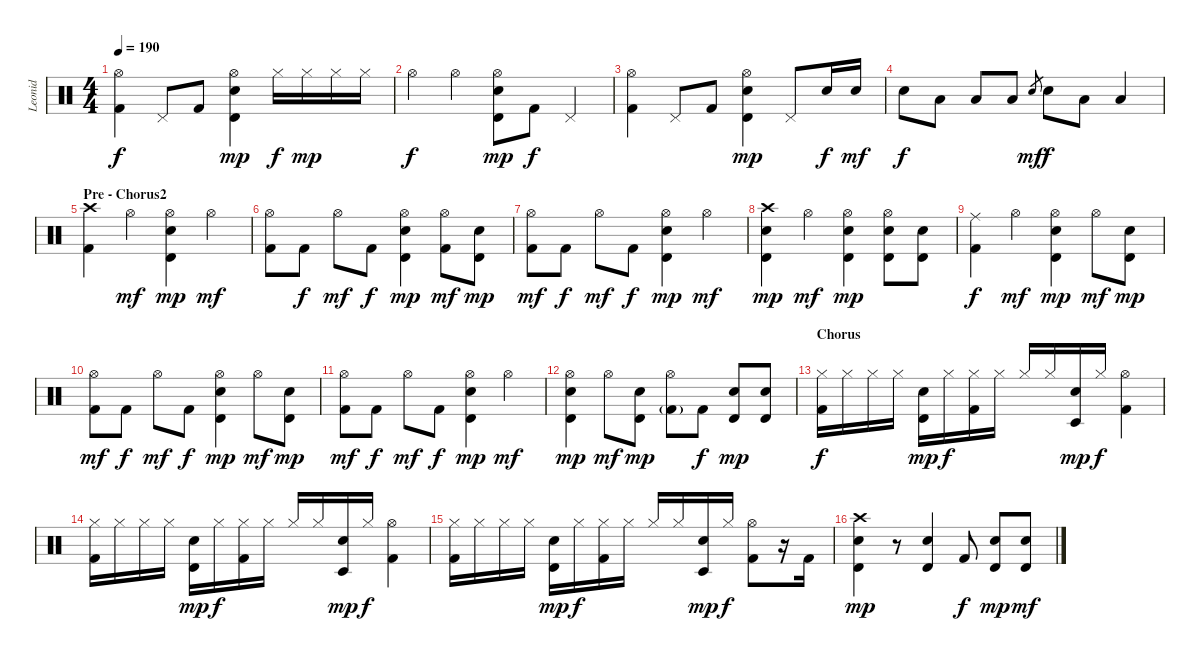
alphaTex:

\track ("Leonid" "Leonid") {instrument percussion}
\staff {score}
\articulation defaults
\ts (4 4)
\tempo 190
\clef neutral
\ks c
("Hi-Hat (open)" "Kick (hit) 2").4{dy f} "Pedal Hi-Hat (hit)".8 "Kick (hit) 2".8 ("Hi-Hat (open)" "Timbale high (hit)" "Electric Snare (hit)").4{dy mp} "Hi-Hat (closed)".16{dy f} "Hi-Hat (closed)".16{dy mp} "Hi-Hat (closed)".16 "Hi-Hat (closed)".16 |
"Hi-Hat (open)".4{dy f} "Hi-Hat (open)".4 ("Hi-Hat (open)" "Timbale high (hit)" "Electric Snare (hit)").8{dy mp} "Kick (hit) 2".8{dy f} "Pedal Hi-Hat (hit)".4 |
("Hi-Hat (open)" "Kick (hit) 2").4 "Pedal Hi-Hat (hit)".8 "Kick (hit) 2".8 ("Hi-Hat (open)" "Timbale high (hit)" "Electric Snare (hit)").4{dy mp} "Pedal Hi-Hat (hit)".8 "Electric Snare (hit)".16{dy f} "Electric Snare (hit)".16{dy mf} |
"Electric Snare (hit)".8{dy f} "Low Tom (hit)".8 "Low Tom (hit)".8 "Low Tom (hit)".8 "Electric Snare (hit)".8{gr dy mf} "Electric Snare (hit)".8{dy f} "Low Tom (hit)".8 "Low Tom (hit)".4 |
\section ("" "Pre - Chorus2")
("Crash high (hit)" "Kick (hit) 2").4 "Hi-Hat (open)".4{dy mf} ("Hi-Hat (open)" "Timbale high (hit)" "Electric Snare (hit)").4{dy mp} "Hi-Hat (open)".4{dy mf} |
("Hi-Hat (open)" "Kick (hit) 2").8 "Kick (hit) 2".8{dy f} "Hi-Hat (open)".8{dy mf} "Kick (hit) 2".8{dy f} ("Hi-Hat (open)" "Timbale high (hit)" "Electric Snare (hit)").4{dy mp} ("Hi-Hat (open)" "Kick (hit) 2").8{dy mf} ("Timbale high (hit)" "Electric Snare (hit)").8{dy mp} |
("Hi-Hat (open)" "Kick (hit) 2").8{dy mf} "Kick (hit) 2".8{dy f} "Hi-Hat (open)".8{dy mf} "Kick (hit) 2".8{dy f} ("Hi-Hat (open)" "Timbale high (hit)" "Electric Snare (hit)").4{dy mp} "Hi-Hat (open)".4{dy mf} |
("Crash high (hit)" "Timbale high (hit)" "Electric Snare (hit)").4{dy mp} "Hi-Hat (open)".4{dy mf} ("Hi-Hat (open)" "Timbale high (hit)" "Electric Snare (hit)").4{dy mp} ("Hi-Hat (open)" "Timbale high (hit)" "Electric Snare (hit)").8 ("Timbale high (hit)" "Electric Snare (hit)").8 |
("Ride (middle)" "Kick (hit) 2").4{dy f} "Hi-Hat (open)".4{dy mf} ("Hi-Hat (open)" "Timbale high (hit)" "Electric Snare (hit)").4{dy mp} "Hi-Hat (open)".8{dy mf} ("Timbale high (hit)" "Electric Snare (hit)").8{dy mp} |
("Hi-Hat (open)" "Kick (hit) 2").8{dy mf} "Kick (hit) 2".8{dy f} "Hi-Hat (open)".8{dy mf} "Kick (hit) 2".8{dy f} ("Hi-Hat (open)" "Timbale high (hit)" "Electric Snare (hit)").4{dy mp} "Hi-Hat (open)".8{dy mf} ("Timbale high (hit)" "Electric Snare (hit)").8{dy mp} |
("Hi-Hat (open)" "Kick (hit) 2").8{dy mf} "Kick (hit) 2".8{dy f} "Hi-Hat (open)".8{dy mf} "Kick (hit) 2".8{dy f} ("Hi-Hat (open)" "Timbale high (hit)" "Electric Snare (hit)").4{dy mp} "Hi-Hat (open)".4{dy mf} |
("Hi-Hat (open)" "Timbale high (hit)" "Electric Snare (hit)").4{dy mp} "Hi-Hat (open)".8{dy mf} ("Timbale high (hit)" "Electric Snare (hit)").8{dy mp} ("Hi-Hat (open)" "Kick (hit) 2"{g}).8 "Kick (hit) 2".8{dy f} ("Timbale high (hit)" "Electric Snare (hit)").8{dy mp} ("Timbale high (hit)" "Electric Snare (hit)").8 |
\section ("" "Chorus")
("Hi-Hat (closed)" "Kick (hit) 2").16{dy f} "Hi-Hat (closed)".16 "Hi-Hat (closed)".16 "Hi-Hat (closed)".16 ("Timbale high (hit)" "Electric Snare (hit)").16{dy mp} "Hi-Hat (closed)".16{dy f} ("Hi-Hat (closed)" "Kick (hit) 2").16 "Hi-Hat (closed)".16 "Hi-Hat (closed)".16 "Hi-Hat (closed)".16 ("Timbale low (hit)" "Electric Snare (hit)").16{dy mp} "Hi-Hat (closed)".16{dy f} ("Hi-Hat (open)" "Kick (hit) 2").4 |
("Hi-Hat (closed)" "Kick (hit) 2").16 "Hi-Hat (closed)".16 "Hi-Hat (closed)".16 "Hi-Hat (closed)".16 ("Timbale high (hit)" "Electric Snare (hit)").16{dy mp} "Hi-Hat (closed)".16{dy f} ("Hi-Hat (closed)" "Kick (hit) 2").16 "Hi-Hat (closed)".16 "Hi-Hat (closed)".16 "Hi-Hat (closed)".16 ("Timbale low (hit)" "Electric Snare (hit)").16{dy mp} "Hi-Hat (closed)".16{dy f} ("Hi-Hat (open)" "Kick (hit) 2").4 |
("Hi-Hat (closed)" "Kick (hit) 2").16 "Hi-Hat (closed)".16 "Hi-Hat (closed)".16 "Hi-Hat (closed)".16 ("Timbale high (hit)" "Electric Snare (hit)").16{dy mp} "Hi-Hat (closed)".16{dy f} ("Hi-Hat (closed)" "Kick (hit) 2").16 "Hi-Hat (closed)".16 "Hi-Hat (closed)".16 "Hi-Hat (closed)".16 ("Timbale low (hit)" "Electric Snare (hit)").16{dy mp} "Hi-Hat (closed)".16{dy f} ("Hi-Hat (open)" "Kick (hit) 2").8 r.16 "Kick (hit) 2".16 |
("Crash high (hit)" "Timbale high (hit)" "Electric Snare (hit)").4{dy mp} r.8 ("Timbale high (hit)" "Electric Snare (hit)").4 "Kick (hit) 2".8{dy f} ("Timbale high (hit)" "Electric Snare (hit)").8{dy mp} ("Timbale high (hit)" "Electric Snare (hit)").8{dy mf}
